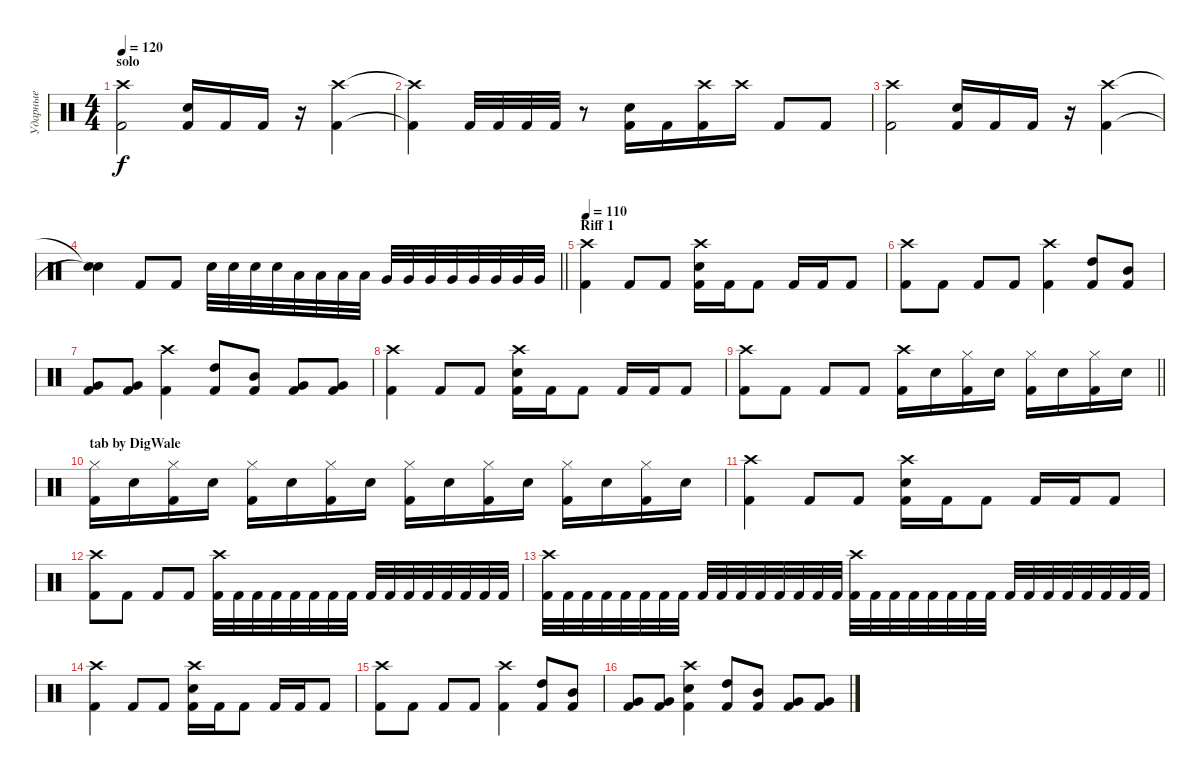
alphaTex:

\track ("Ударные" "Ударные") {instrument percussion}
\staff {score}
\articulation defaults
\ts (4 4)
\section ("" "solo")
\tempo 120
\clef neutral
\ks c
("Crash high (hit)" "Kick (hit) 2").2{dy f} ("Electric Snare (hit)" "Kick (hit) 2").16 "Kick (hit) 2".16 "Kick (hit) 2".16 r.16 ("Crash high (hit)" "Kick (hit) 2").4 |
("Crash high (hit)"{t} "Kick (hit) 2"{t}).4 "Kick (hit) 2".32 "Kick (hit) 2".32 "Kick (hit) 2".32 "Kick (hit) 2".32 r.8 ("Electric Snare (hit)" "Kick (hit) 2").16 "Kick (hit) 2".16 ("Crash high (hit)" "Kick (hit) 2").16 "Crash high (hit)".16 "Kick (hit) 2".8 "Kick (hit) 2".8 |
("Crash high (hit)" "Kick (hit) 2").2 ("Electric Snare (hit)" "Kick (hit) 2").16 "Kick (hit) 2".16 "Kick (hit) 2".16 r.16 ("Crash high (hit)" "Kick (hit) 2").4 |
\barLineRight lightlight
("Snare (hit)"{t} "Snare (hit)"{t}).4 "Kick (hit) 2".8 "Kick (hit) 2".8 "Electric Snare (hit)".32 "Electric Snare (hit)".32 "Electric Snare (hit)".32 "Electric Snare (hit)".32 "Low Tom (hit)".32 "Low Tom (hit)".32 "Low Tom (hit)".32 "Low Tom (hit)".32 "Very Low Tom (hit)".32 "Very Low Tom (hit)".32 "Very Low Tom (hit)".32 "Very Low Tom (hit)".32 "Very Low Tom (hit)".32 "Very Low Tom (hit)".32 "Very Low Tom (hit)".32 "Very Low Tom (hit)".32 |
\section ("" "Riff 1")
\tempo 110
("Crash high (hit)" "Kick (hit) 2").4 "Kick (hit) 2".8 "Kick (hit) 2".8 ("Crash high (hit)" "Electric Snare (hit)" "Kick (hit) 2").16 "Kick (hit) 2".16 "Kick (hit) 2".8 "Kick (hit) 2".16 "Kick (hit) 2".16 "Kick (hit) 2".8 |
("Crash high (hit)" "Kick (hit) 2").8 "Kick (hit) 2".8 "Kick (hit) 2".8 "Kick (hit) 2".8 ("Crash high (hit)" "Kick (hit) 2").4 ("High Tom (hit)" "Kick (hit) 2").8 ("Mid Tom (hit)" "Kick (hit) 2").8 |
("Very Low Tom (hit)" "Kick (hit) 2").8 ("Very Low Tom (hit)" "Kick (hit) 2").8 ("Crash high (hit)" "Kick (hit) 2").4 ("High Tom (hit)" "Kick (hit) 2").8 ("Mid Tom (hit)" "Kick (hit) 2").8 ("Very Low Tom (hit)" "Kick (hit) 2").8 ("Very Low Tom (hit)" "Kick (hit) 2").8 |
("Crash high (hit)" "Kick (hit) 2").4 "Kick (hit) 2".8 "Kick (hit) 2".8 ("Crash high (hit)" "Electric Snare (hit)" "Kick (hit) 2").16 "Kick (hit) 2".16 "Kick (hit) 2".8 "Kick (hit) 2".16 "Kick (hit) 2".16 "Kick (hit) 2".8 |
\barLineRight lightlight
("Crash high (hit)" "Kick (hit) 2").8 "Kick (hit) 2".8 "Kick (hit) 2".8 "Kick (hit) 2".8 ("Crash high (hit)" "Kick (hit) 2").16 "Electric Snare (hit)".16 ("Hi-Hat (closed)" "Kick (hit) 2").16 "Electric Snare (hit)".16 ("Hi-Hat (closed)" "Kick (hit) 2").16 "Electric Snare (hit)".16 ("Hi-Hat (closed)" "Kick (hit) 2").16 "Electric Snare (hit)".16 |
\section ("" "tab by DigWale")
("Hi-Hat (closed)" "Kick (hit) 2").16 "Electric Snare (hit)".16 ("Hi-Hat (closed)" "Kick (hit) 2").16 "Electric Snare (hit)".16 ("Hi-Hat (closed)" "Kick (hit) 2").16 "Electric Snare (hit)".16 ("Hi-Hat (closed)" "Kick (hit) 2").16 "Electric Snare (hit)".16 ("Hi-Hat (closed)" "Kick (hit) 2").16 "Electric Snare (hit)".16 ("Hi-Hat (closed)" "Kick (hit) 2").16 "Electric Snare (hit)".16 ("Hi-Hat (closed)" "Kick (hit) 2").16 "Electric Snare (hit)".16 ("Hi-Hat (closed)" "Kick (hit) 2").16 "Electric Snare (hit)".16 |
("Crash high (hit)" "Kick (hit) 2").4 "Kick (hit) 2".8 "Kick (hit) 2".8 ("Crash high (hit)" "Electric Snare (hit)" "Kick (hit) 2").16 "Kick (hit) 2".16 "Kick (hit) 2".8 "Kick (hit) 2".16 "Kick (hit) 2".16 "Kick (hit) 2".8 |
("Crash high (hit)" "Kick (hit) 2").8 "Kick (hit) 2".8 "Kick (hit) 2".8 "Kick (hit) 2".8 ("Crash high (hit)" "Kick (hit) 2").32 "Kick (hit) 2".32 "Kick (hit) 2".32 "Kick (hit) 2".32 "Kick (hit) 2".32 "Kick (hit) 2".32 "Kick (hit) 2".32 "Kick (hit) 2".32 "Kick (hit) 2".32 "Kick (hit) 2".32 "Kick (hit) 2".32 "Kick (hit) 2".32 "Kick (hit) 2".32 "Kick (hit) 2".32 "Kick (hit) 2".32 "Kick (hit) 2".32 |
("Crash high (hit)" "Kick (hit) 2").32 "Kick (hit) 2".32 "Kick (hit) 2".32 "Kick (hit) 2".32 "Kick (hit) 2".32 "Kick (hit) 2".32 "Kick (hit) 2".32 "Kick (hit) 2".32 "Kick (hit) 2".32 "Kick (hit) 2".32 "Kick (hit) 2".32 "Kick (hit) 2".32 "Kick (hit) 2".32 "Kick (hit) 2".32 "Kick (hit) 2".32 "Kick (hit) 2".32 ("Crash high (hit)" "Kick (hit) 2").32 "Kick (hit) 2".32 "Kick (hit) 2".32 "Kick (hit) 2".32 "Kick (hit) 2".32 "Kick (hit) 2".32 "Kick (hit) 2".32 "Kick (hit) 2".32 "Kick (hit) 2".32 "Kick (hit) 2".32 "Kick (hit) 2".32 "Kick (hit) 2".32 "Kick (hit) 2".32 "Kick (hit) 2".32 "Kick (hit) 2".32 "Kick (hit) 2".32 |
("Crash high (hit)" "Kick (hit) 2").4 "Kick (hit) 2".8 "Kick (hit) 2".8 ("Crash high (hit)" "Electric Snare (hit)" "Kick (hit) 2").16 "Kick (hit) 2".16 "Kick (hit) 2".8 "Kick (hit) 2".16 "Kick (hit) 2".16 "Kick (hit) 2".8 |
("Crash high (hit)" "Kick (hit) 2").8 "Kick (hit) 2".8 "Kick (hit) 2".8 "Kick (hit) 2".8 ("Crash high (hit)" "Kick (hit) 2").4 ("High Tom (hit)" "Kick (hit) 2").8 ("Mid Tom (hit)" "Kick (hit) 2").8 |
("Very Low Tom (hit)" "Kick (hit) 2").8 ("Very Low Tom (hit)" "Kick (hit) 2").8 ("Crash high (hit)" "Electric Snare (hit)" "Kick (hit) 2").4 ("High Tom (hit)" "Kick (hit) 2").8 ("Mid Tom (hit)" "Kick (hit) 2").8 ("Very Low Tom (hit)" "Kick (hit) 2").8 ("Very Low Tom (hit)" "Kick (hit) 2").8
